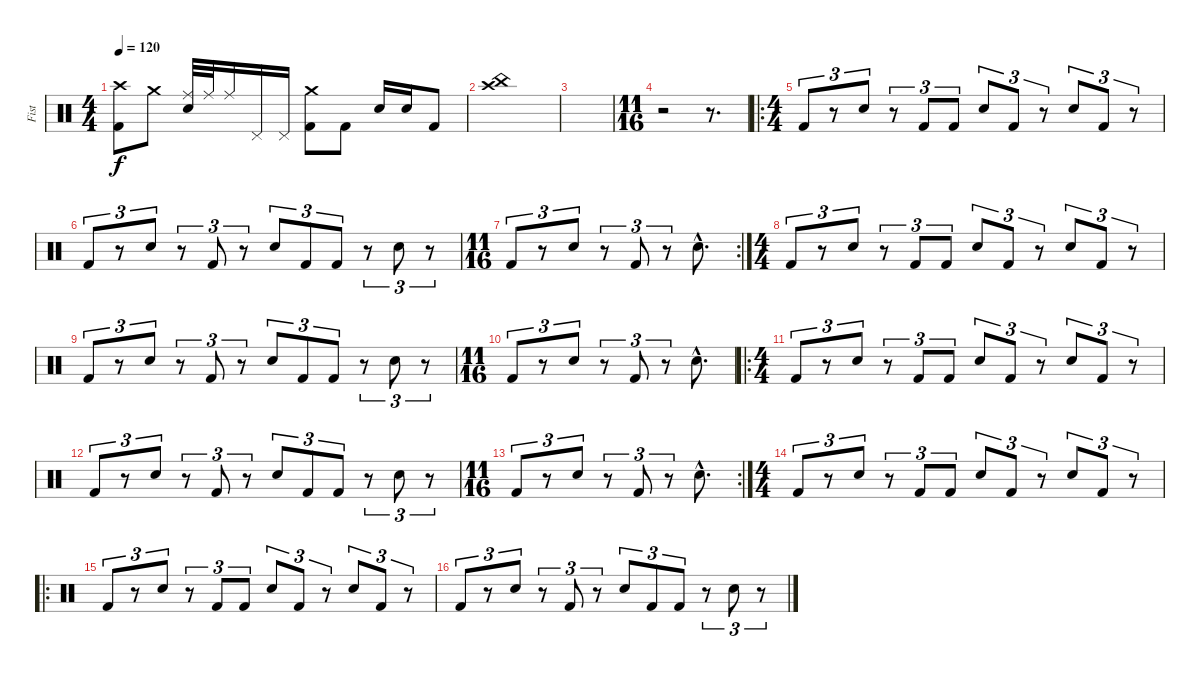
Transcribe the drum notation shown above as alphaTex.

\track ("Fist" "Fist") {instrument percussion}
\staff {score}
\articulation defaults
\ts (4 4)
\tempo 120
\clef neutral
\ks c
("Crash high (hit)" "Kick (hit) 2").8{dy f} "Crash medium (hit)".8 ("Ride (middle)" "Electric Snare (hit)").32 "Ride (middle)".32 "Ride (middle)".16 "Pedal Hi-Hat (hit)".16 "Pedal Hi-Hat (hit)".16 ("Crash medium (hit)" "Kick (hit) 2").8 "Kick (hit) 2".8 "Electric Snare (hit)".16 "Electric Snare (hit)".16 "Kick (hit) 2".8 |
("China (hit)" "Crash high (hit)").1 |
|
\ts (11 16)
r.2 r.8{d} |
\ro
\ts (4 4)
"Kick (hit) 2".8{tu (3 2)} r.8{tu (3 2)} "Electric Snare (hit)".8{tu (3 2)} r.8{tu (3 2)} "Kick (hit) 2".8{tu (3 2)} "Kick (hit) 2".8{tu (3 2)} "Electric Snare (hit)".8{tu (3 2)} "Kick (hit) 2".8{tu (3 2)} r.8{tu (3 2)} "Electric Snare (hit)".8{tu (3 2)} "Kick (hit) 2".8{tu (3 2)} r.8{tu (3 2)} |
"Kick (hit) 2".8{tu (3 2)} r.8{tu (3 2)} "Electric Snare (hit)".8{tu (3 2)} r.8{tu (3 2)} "Kick (hit) 2".8{tu (3 2)} r.8{tu (3 2)} "Electric Snare (hit)".8{tu (3 2)} "Kick (hit) 2".8{tu (3 2)} "Kick (hit) 2".8{tu (3 2)} r.8{tu (3 2)} "Electric Snare (hit)".8{tu (3 2)} r.8{tu (3 2)} |
\rc 2
\ts (11 16)
"Kick (hit) 2".8{tu (3 2)} r.8{tu (3 2)} "Electric Snare (hit)".8{tu (3 2)} r.8{tu (3 2)} "Kick (hit) 2".8{tu (3 2)} r.8{tu (3 2)} "Electric Snare (hit)"{hac}.8{d} |
\ts (4 4)
"Kick (hit) 2".8{tu (3 2)} r.8{tu (3 2)} "Electric Snare (hit)".8{tu (3 2)} r.8{tu (3 2)} "Kick (hit) 2".8{tu (3 2)} "Kick (hit) 2".8{tu (3 2)} "Electric Snare (hit)".8{tu (3 2)} "Kick (hit) 2".8{tu (3 2)} r.8{tu (3 2)} "Electric Snare (hit)".8{tu (3 2)} "Kick (hit) 2".8{tu (3 2)} r.8{tu (3 2)} |
"Kick (hit) 2".8{tu (3 2)} r.8{tu (3 2)} "Electric Snare (hit)".8{tu (3 2)} r.8{tu (3 2)} "Kick (hit) 2".8{tu (3 2)} r.8{tu (3 2)} "Electric Snare (hit)".8{tu (3 2)} "Kick (hit) 2".8{tu (3 2)} "Kick (hit) 2".8{tu (3 2)} r.8{tu (3 2)} "Electric Snare (hit)".8{tu (3 2)} r.8{tu (3 2)} |
\ts (11 16)
"Kick (hit) 2".8{tu (3 2)} r.8{tu (3 2)} "Electric Snare (hit)".8{tu (3 2)} r.8{tu (3 2)} "Kick (hit) 2".8{tu (3 2)} r.8{tu (3 2)} "Electric Snare (hit)"{hac}.8{d} |
\ro
\ts (4 4)
"Kick (hit) 2".8{tu (3 2)} r.8{tu (3 2)} "Electric Snare (hit)".8{tu (3 2)} r.8{tu (3 2)} "Kick (hit) 2".8{tu (3 2)} "Kick (hit) 2".8{tu (3 2)} "Electric Snare (hit)".8{tu (3 2)} "Kick (hit) 2".8{tu (3 2)} r.8{tu (3 2)} "Electric Snare (hit)".8{tu (3 2)} "Kick (hit) 2".8{tu (3 2)} r.8{tu (3 2)} |
"Kick (hit) 2".8{tu (3 2)} r.8{tu (3 2)} "Electric Snare (hit)".8{tu (3 2)} r.8{tu (3 2)} "Kick (hit) 2".8{tu (3 2)} r.8{tu (3 2)} "Electric Snare (hit)".8{tu (3 2)} "Kick (hit) 2".8{tu (3 2)} "Kick (hit) 2".8{tu (3 2)} r.8{tu (3 2)} "Electric Snare (hit)".8{tu (3 2)} r.8{tu (3 2)} |
\rc 2
\ts (11 16)
"Kick (hit) 2".8{tu (3 2)} r.8{tu (3 2)} "Electric Snare (hit)".8{tu (3 2)} r.8{tu (3 2)} "Kick (hit) 2".8{tu (3 2)} r.8{tu (3 2)} "Electric Snare (hit)"{hac}.8{d} |
\ts (4 4)
"Kick (hit) 2".8{tu (3 2)} r.8{tu (3 2)} "Electric Snare (hit)".8{tu (3 2)} r.8{tu (3 2)} "Kick (hit) 2".8{tu (3 2)} "Kick (hit) 2".8{tu (3 2)} "Electric Snare (hit)".8{tu (3 2)} "Kick (hit) 2".8{tu (3 2)} r.8{tu (3 2)} "Electric Snare (hit)".8{tu (3 2)} "Kick (hit) 2".8{tu (3 2)} r.8{tu (3 2)} |
\ro "Kick (hit) 2".8{tu (3 2)}
r.8{tu (3 2)} "Electric Snare (hit)".8{tu (3 2)} r.8{tu (3 2)} "Kick (hit) 2".8{tu (3 2)} "Kick (hit) 2".8{tu (3 2)} "Electric Snare (hit)".8{tu (3 2)} "Kick (hit) 2".8{tu (3 2)} r.8{tu (3 2)} "Electric Snare (hit)".8{tu (3 2)} "Kick (hit) 2".8{tu (3 2)} r.8{tu (3 2)} |
"Kick (hit) 2".8{tu (3 2)} r.8{tu (3 2)} "Electric Snare (hit)".8{tu (3 2)} r.8{tu (3 2)} "Kick (hit) 2".8{tu (3 2)} r.8{tu (3 2)} "Electric Snare (hit)".8{tu (3 2)} "Kick (hit) 2".8{tu (3 2)} "Kick (hit) 2".8{tu (3 2)} r.8{tu (3 2)} "Electric Snare (hit)".8{tu (3 2)} r.8{tu (3 2)}
